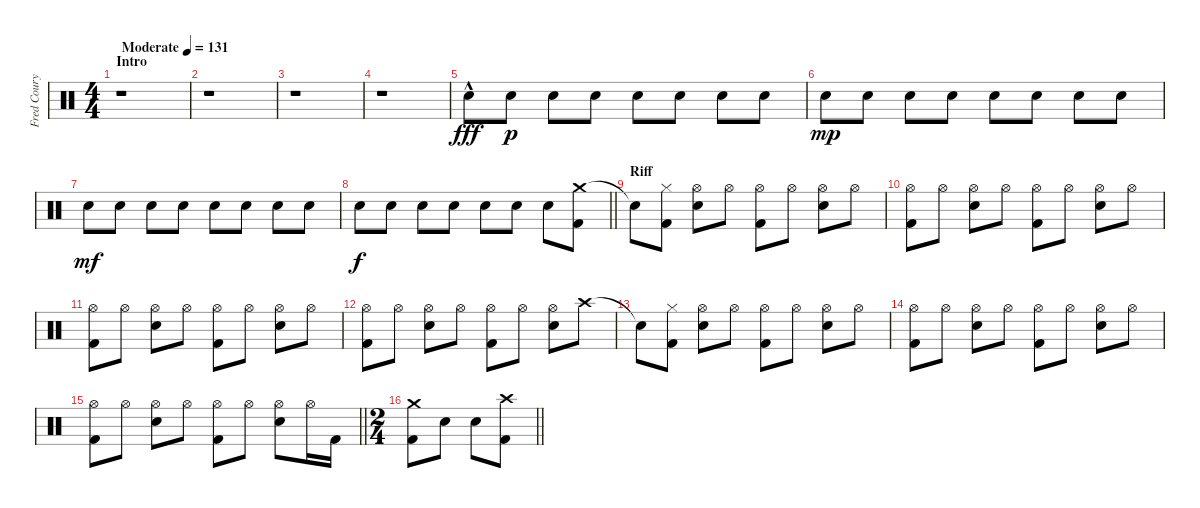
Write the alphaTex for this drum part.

\track ("Fred Coury - Drums" "Fred Coury") {instrument percussion}
\staff {score}
\articulation defaults
\ts (4 4)
\section ("" "Intro")
\tempo (131 "Moderate")
\clef neutral
\ks c
r.1{dy fff} |
r.1 |
r.1 |
r.1 |
"Snare (hit) 2"{hac}.8 "Snare (hit) 2".8{dy p} "Snare (hit) 2".8 "Snare (hit) 2".8 "Snare (hit) 2".8 "Snare (hit) 2".8 "Snare (hit) 2".8 "Snare (hit) 2".8 |
"Snare (hit) 2".8{dy mp} "Snare (hit) 2".8 "Snare (hit) 2".8 "Snare (hit) 2".8 "Snare (hit) 2".8 "Snare (hit) 2".8 "Snare (hit) 2".8 "Snare (hit) 2".8 |
"Snare (hit) 2".8{dy mf} "Snare (hit) 2".8 "Snare (hit) 2".8 "Snare (hit) 2".8 "Snare (hit) 2".8 "Snare (hit) 2".8 "Snare (hit) 2".8 "Snare (hit) 2".8 |
\barLineRight lightlight "Snare (hit) 2".8{dy f} "Snare (hit) 2".8 "Snare (hit) 2".8 "Snare (hit) 2".8 "Snare (hit) 2".8 "Snare (hit) 2".8 "Snare (hit) 2".8
("Crash medium (hit)" "Kick (hit) 2").8 |
\section ("" "Riff")
"Snare (hit)"{t}.8 ("Hi-Hat (closed)" "Kick (hit) 2").8 ("Hi-Hat (open)" "Snare (hit) 2").8 "Hi-Hat (open)".8 ("Hi-Hat (open)" "Kick (hit) 2").8 "Hi-Hat (open)".8 ("Hi-Hat (open)" "Snare (hit) 2").8 "Hi-Hat (open)".8 |
("Hi-Hat (open)" "Kick (hit) 2").8 "Hi-Hat (open)".8 ("Hi-Hat (open)" "Snare (hit) 2").8 "Hi-Hat (open)".8 ("Hi-Hat (open)" "Kick (hit) 2").8 "Hi-Hat (open)".8 ("Hi-Hat (open)" "Snare (hit) 2").8 "Hi-Hat (open)".8 |
("Hi-Hat (open)" "Kick (hit) 2").8 "Hi-Hat (open)".8 ("Hi-Hat (open)" "Snare (hit) 2").8 "Hi-Hat (open)".8 ("Hi-Hat (open)" "Kick (hit) 2").8 "Hi-Hat (open)".8 ("Hi-Hat (open)" "Snare (hit) 2").8 "Hi-Hat (open)".8 |
("Hi-Hat (open)" "Kick (hit) 2").8 "Hi-Hat (open)".8 ("Hi-Hat (open)" "Snare (hit) 2").8 "Hi-Hat (open)".8 ("Hi-Hat (open)" "Kick (hit) 2").8 "Hi-Hat (open)".8 ("Hi-Hat (open)" "Snare (hit) 2").8 "Crash high (hit)".8 |
"Snare (hit)"{t}.8 ("Hi-Hat (closed)" "Kick (hit) 2").8 ("Hi-Hat (open)" "Snare (hit) 2").8 "Hi-Hat (open)".8 ("Hi-Hat (open)" "Kick (hit) 2").8 "Hi-Hat (open)".8 ("Hi-Hat (open)" "Snare (hit) 2").8 "Hi-Hat (open)".8 |
("Hi-Hat (open)" "Kick (hit) 2").8 "Hi-Hat (open)".8 ("Hi-Hat (open)" "Snare (hit) 2").8 "Hi-Hat (open)".8 ("Hi-Hat (open)" "Kick (hit) 2").8 "Hi-Hat (open)".8 ("Hi-Hat (open)" "Snare (hit) 2").8 "Hi-Hat (open)".8 |
\barLineRight lightlight
("Hi-Hat (open)" "Kick (hit) 2").8 "Hi-Hat (open)".8 ("Hi-Hat (open)" "Snare (hit) 2").8 "Hi-Hat (open)".8 ("Hi-Hat (open)" "Kick (hit) 2").8 "Hi-Hat (open)".8 ("Hi-Hat (open)" "Snare (hit) 2").8 "Hi-Hat (open)".16 "Kick (hit) 2".16 |
\ts (2 4)
\section ("" "")
\barLineRight lightlight
("Crash medium (hit)" "Kick (hit) 2").8 "Snare (hit) 2".8 "Snare (hit) 2".8 ("Crash high (hit)" "Kick (hit) 2").8
